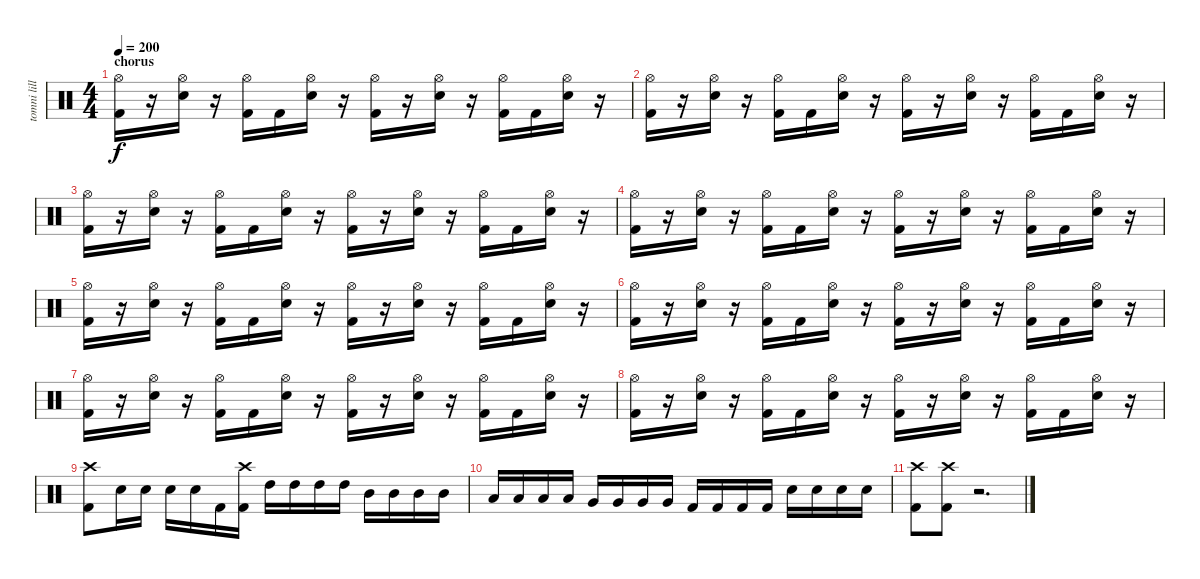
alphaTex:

\track ("tomni lillmann" "tomni lill") {instrument percussion}
\staff {score}
\articulation defaults
\ts (4 4)
\section ("" "chorus")
\tempo 200
\clef neutral
\ks c
("Hi-Hat (open)" "Kick (hit) 2").16{dy f} r.16 ("Hi-Hat (open)" "Snare (hit) 2").16 r.16 ("Hi-Hat (open)" "Kick (hit) 2").16 "Kick (hit) 2".16 ("Hi-Hat (open)" "Snare (hit) 2").16 r.16 ("Hi-Hat (open)" "Kick (hit) 2").16 r.16 ("Hi-Hat (open)" "Snare (hit) 2").16 r.16 ("Hi-Hat (open)" "Kick (hit) 2").16 "Kick (hit) 2".16 ("Hi-Hat (open)" "Snare (hit) 2").16 r.16 |
("Hi-Hat (open)" "Kick (hit) 2").16 r.16 ("Hi-Hat (open)" "Snare (hit) 2").16 r.16 ("Hi-Hat (open)" "Kick (hit) 2").16 "Kick (hit) 2".16 ("Hi-Hat (open)" "Snare (hit) 2").16 r.16 ("Hi-Hat (open)" "Kick (hit) 2").16 r.16 ("Hi-Hat (open)" "Snare (hit) 2").16 r.16 ("Hi-Hat (open)" "Kick (hit) 2").16 "Kick (hit) 2".16 ("Hi-Hat (open)" "Snare (hit) 2").16 r.16 |
("Hi-Hat (open)" "Kick (hit) 2").16 r.16 ("Hi-Hat (open)" "Snare (hit) 2").16 r.16 ("Hi-Hat (open)" "Kick (hit) 2").16 "Kick (hit) 2".16 ("Hi-Hat (open)" "Snare (hit) 2").16 r.16 ("Hi-Hat (open)" "Kick (hit) 2").16 r.16 ("Hi-Hat (open)" "Snare (hit) 2").16 r.16 ("Hi-Hat (open)" "Kick (hit) 2").16 "Kick (hit) 2".16 ("Hi-Hat (open)" "Snare (hit) 2").16 r.16 |
("Hi-Hat (open)" "Kick (hit) 2").16 r.16 ("Hi-Hat (open)" "Snare (hit) 2").16 r.16 ("Hi-Hat (open)" "Kick (hit) 2").16 "Kick (hit) 2".16 ("Hi-Hat (open)" "Snare (hit) 2").16 r.16 ("Hi-Hat (open)" "Kick (hit) 2").16 r.16 ("Hi-Hat (open)" "Snare (hit) 2").16 r.16 ("Hi-Hat (open)" "Kick (hit) 2").16 "Kick (hit) 2".16 ("Hi-Hat (open)" "Snare (hit) 2").16 r.16 |
("Hi-Hat (open)" "Kick (hit) 2").16 r.16 ("Hi-Hat (open)" "Snare (hit) 2").16 r.16 ("Hi-Hat (open)" "Kick (hit) 2").16 "Kick (hit) 2".16 ("Hi-Hat (open)" "Snare (hit) 2").16 r.16 ("Hi-Hat (open)" "Kick (hit) 2").16 r.16 ("Hi-Hat (open)" "Snare (hit) 2").16 r.16 ("Hi-Hat (open)" "Kick (hit) 2").16 "Kick (hit) 2".16 ("Hi-Hat (open)" "Snare (hit) 2").16 r.16 |
("Hi-Hat (open)" "Kick (hit) 2").16 r.16 ("Hi-Hat (open)" "Snare (hit) 2").16 r.16 ("Hi-Hat (open)" "Kick (hit) 2").16 "Kick (hit) 2".16 ("Hi-Hat (open)" "Snare (hit) 2").16 r.16 ("Hi-Hat (open)" "Kick (hit) 2").16 r.16 ("Hi-Hat (open)" "Snare (hit) 2").16 r.16 ("Hi-Hat (open)" "Kick (hit) 2").16 "Kick (hit) 2".16 ("Hi-Hat (open)" "Snare (hit) 2").16 r.16 |
("Hi-Hat (open)" "Kick (hit) 2").16 r.16 ("Hi-Hat (open)" "Snare (hit) 2").16 r.16 ("Hi-Hat (open)" "Kick (hit) 2").16 "Kick (hit) 2".16 ("Hi-Hat (open)" "Snare (hit) 2").16 r.16 ("Hi-Hat (open)" "Kick (hit) 2").16 r.16 ("Hi-Hat (open)" "Snare (hit) 2").16 r.16 ("Hi-Hat (open)" "Kick (hit) 2").16 "Kick (hit) 2".16 ("Hi-Hat (open)" "Snare (hit) 2").16 r.16 |
("Hi-Hat (open)" "Kick (hit) 2").16 r.16 ("Hi-Hat (open)" "Snare (hit) 2").16 r.16 ("Hi-Hat (open)" "Kick (hit) 2").16 "Kick (hit) 2".16 ("Hi-Hat (open)" "Snare (hit) 2").16 r.16 ("Hi-Hat (open)" "Kick (hit) 2").16 r.16 ("Hi-Hat (open)" "Snare (hit) 2").16 r.16 ("Hi-Hat (open)" "Kick (hit) 2").16 "Kick (hit) 2".16 ("Hi-Hat (open)" "Snare (hit) 2").16 r.16 |
("Crash high (hit)" "Kick (hit) 2").8 "Snare (hit) 2".16 "Snare (hit) 2".16 "Snare (hit) 2".16 "Snare (hit) 2".16 "Kick (hit) 2".16 ("Crash high (hit)" "Kick (hit) 2").16 "High Tom (hit)".16 "High Tom (hit)".16 "High Tom (hit)".16 "High Tom (hit)".16 "Mid Tom (hit)".16 "Mid Tom (hit)".16 "Mid Tom (hit)".16 "Mid Tom (hit)".16 |
"Low Tom (hit)".16 "Low Tom (hit)".16 "Low Tom (hit)".16 "Low Tom (hit)".16 "Very Low Tom (hit)".16 "Very Low Tom (hit)".16 "Very Low Tom (hit)".16 "Very Low Tom (hit)".16 "Kick (hit) 2".16 "Kick (hit) 2".16 "Kick (hit) 2".16 "Kick (hit) 2".16 "Snare (hit) 2".16 "Snare (hit) 2".16 "Snare (hit) 2".16 "Snare (hit) 2".16 |
("Crash high (hit)" "Kick (hit) 2").8 ("Crash high (hit)" "Kick (hit) 2").8 r.2{d}
